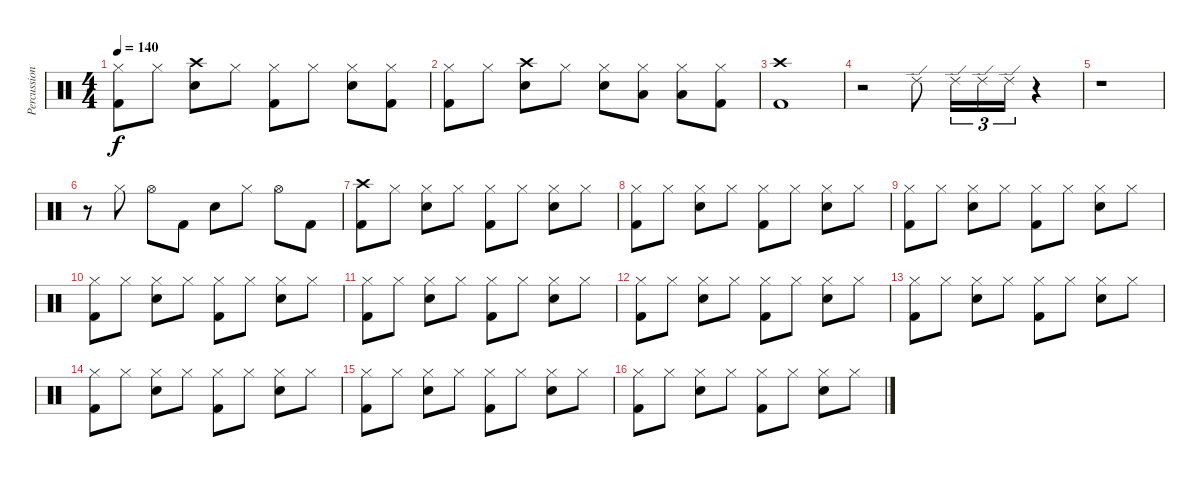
\track ("Percussion" "Percussion") {instrument percussion}
\staff {score}
\articulation defaults
\ts (4 4)
\tempo 140
\clef neutral
\ks c
("Hi-Hat (closed)" "Kick (hit) 2").8{dy f} "Hi-Hat (closed)".8 ("Crash high (hit)" "Snare (hit) 2").8 "Hi-Hat (closed)".8 ("Hi-Hat (closed)" "Kick (hit) 2").8 "Hi-Hat (closed)".8 ("Hi-Hat (closed)" "Snare (hit) 2").8 ("Hi-Hat (closed)" "Kick (hit) 2").8 |
("Hi-Hat (closed)" "Kick (hit) 2").8 "Hi-Hat (closed)".8 ("Crash high (hit)" "Snare (hit) 2").8 "Hi-Hat (closed)".8 ("Hi-Hat (closed)" "Snare (hit) 2").8 ("Hi-Hat (closed)" "Low Tom (hit)").8 ("Hi-Hat (closed)" "Low Tom (hit)").8 ("Hi-Hat (closed)" "Kick (hit) 2").8 |
("Crash high (hit)" "Kick (hit) 2").1 |
r.2 "Ride (edge) 2".8 "Ride (edge) 2".16{tu (3 2)} "Ride (edge) 2".16{tu (3 2)} "Ride (edge) 2".16{tu (3 2)} r.4 |
r.1 |
r.8 "Hi-Hat (closed)".8 "Hi-Hat (open)".8 "Kick (hit) 2".8 "Snare (hit) 2".8 "Hi-Hat (closed)".8 "Hi-Hat (open)".8 "Kick (hit) 2".8 |
("Crash high (hit)" "Kick (hit) 2").8 "Hi-Hat (closed)".8 ("Hi-Hat (closed)" "Snare (hit) 2").8 "Hi-Hat (closed)".8 ("Hi-Hat (closed)" "Kick (hit) 2").8 "Hi-Hat (closed)".8 ("Hi-Hat (closed)" "Snare (hit) 2").8 "Hi-Hat (closed)".8 |
("Hi-Hat (closed)" "Kick (hit) 2").8 "Hi-Hat (closed)".8 ("Hi-Hat (closed)" "Snare (hit) 2").8 "Hi-Hat (closed)".8 ("Hi-Hat (closed)" "Kick (hit) 2").8 "Hi-Hat (closed)".8 ("Hi-Hat (closed)" "Snare (hit) 2").8 "Hi-Hat (closed)".8 |
("Hi-Hat (closed)" "Kick (hit) 2").8 "Hi-Hat (closed)".8 ("Hi-Hat (closed)" "Snare (hit) 2").8 "Hi-Hat (closed)".8 ("Hi-Hat (closed)" "Kick (hit) 2").8 "Hi-Hat (closed)".8 ("Hi-Hat (closed)" "Snare (hit) 2").8 "Hi-Hat (closed)".8 |
("Hi-Hat (closed)" "Kick (hit) 2").8 "Hi-Hat (closed)".8 ("Hi-Hat (closed)" "Snare (hit) 2").8 "Hi-Hat (closed)".8 ("Hi-Hat (closed)" "Kick (hit) 2").8 "Hi-Hat (closed)".8 ("Hi-Hat (closed)" "Snare (hit) 2").8 "Hi-Hat (closed)".8 |
("Hi-Hat (closed)" "Kick (hit) 2").8 "Hi-Hat (closed)".8 ("Hi-Hat (closed)" "Snare (hit) 2").8 "Hi-Hat (closed)".8 ("Hi-Hat (closed)" "Kick (hit) 2").8 "Hi-Hat (closed)".8 ("Hi-Hat (closed)" "Snare (hit) 2").8 "Hi-Hat (closed)".8 |
("Hi-Hat (closed)" "Kick (hit) 2").8 "Hi-Hat (closed)".8 ("Hi-Hat (closed)" "Snare (hit) 2").8 "Hi-Hat (closed)".8 ("Hi-Hat (closed)" "Kick (hit) 2").8 "Hi-Hat (closed)".8 ("Hi-Hat (closed)" "Snare (hit) 2").8 "Hi-Hat (closed)".8 |
("Hi-Hat (closed)" "Kick (hit) 2").8 "Hi-Hat (closed)".8 ("Hi-Hat (closed)" "Snare (hit) 2").8 "Hi-Hat (closed)".8 ("Hi-Hat (closed)" "Kick (hit) 2").8 "Hi-Hat (closed)".8 ("Hi-Hat (closed)" "Snare (hit) 2").8 "Hi-Hat (closed)".8 |
("Hi-Hat (closed)" "Kick (hit) 2").8 "Hi-Hat (closed)".8 ("Hi-Hat (closed)" "Snare (hit) 2").8 "Hi-Hat (closed)".8 ("Hi-Hat (closed)" "Kick (hit) 2").8 "Hi-Hat (closed)".8 ("Hi-Hat (closed)" "Snare (hit) 2").8 "Hi-Hat (closed)".8 |
("Hi-Hat (closed)" "Kick (hit) 2").8 "Hi-Hat (closed)".8 ("Hi-Hat (closed)" "Snare (hit) 2").8 "Hi-Hat (closed)".8 ("Hi-Hat (closed)" "Kick (hit) 2").8 "Hi-Hat (closed)".8 ("Hi-Hat (closed)" "Snare (hit) 2").8 "Hi-Hat (closed)".8 |
("Hi-Hat (closed)" "Kick (hit) 2").8 "Hi-Hat (closed)".8 ("Hi-Hat (closed)" "Snare (hit) 2").8 "Hi-Hat (closed)".8 ("Hi-Hat (closed)" "Kick (hit) 2").8 "Hi-Hat (closed)".8 ("Hi-Hat (closed)" "Snare (hit) 2").8 "Hi-Hat (closed)".8
